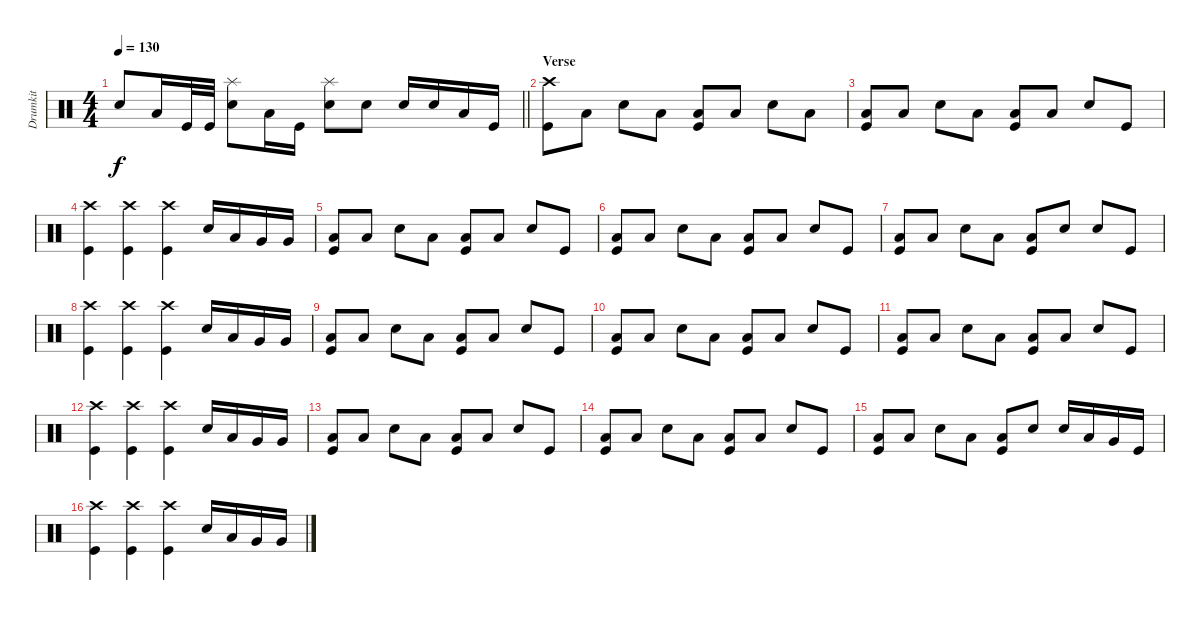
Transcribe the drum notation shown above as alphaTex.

\track ("Drumkit" "Drumkit") {instrument percussion}
\staff {score}
\articulation defaults
\ts (4 4)
\tempo 130
\clef neutral
\barLineRight lightlight
\ks c "Snare (hit) 2".8{dy f} "Low Tom (hit)".16 "Kick (hit)".32 "Kick (hit)".32
("Snare (hit) 2" "Splash (hit)").8 "Low Tom (hit)".16 "Kick (hit)".16 ("Snare (hit) 2" "Splash (hit)").8 "Snare (hit) 2".8 "Snare (hit) 2".16 "Snare (hit) 2".16 "Low Floor Tom (hit)".16 "Kick (hit)".16 |
\section ("" "Verse")
("Crash high (hit)" "Kick (hit)").8 "Low Floor Tom (hit)".8 "Snare (hit) 2".8 "Low Floor Tom (hit)".8 ("Low Floor Tom (hit)" "Kick (hit)").8 "Low Floor Tom (hit)".8 "Snare (hit) 2".8 "Low Floor Tom (hit)".8 |
("Kick (hit)" "Low Floor Tom (hit)").8 "Low Floor Tom (hit)".8 "Snare (hit) 2".8 "Low Floor Tom (hit)".8 ("Low Floor Tom (hit)" "Kick (hit)").8 "Low Floor Tom (hit)".8 "Snare (hit) 2".8 "Kick (hit)".8 |
("Crash high (hit)" "Kick (hit)").4 ("Crash high (hit)" "Kick (hit)").4 ("Crash high (hit)" "Kick (hit)").4 "Snare (hit) 2".16 "Low Tom (hit)".16 "Very Low Tom (hit)".16 "Very Low Tom (hit)".16 |
("Kick (hit)" "Low Floor Tom (hit)").8 "Low Floor Tom (hit)".8 "Snare (hit) 2".8 "Low Floor Tom (hit)".8 ("Low Floor Tom (hit)" "Kick (hit)").8 "Low Floor Tom (hit)".8 "Snare (hit) 2".8 "Kick (hit)".8 |
("Kick (hit)" "Low Floor Tom (hit)").8 "Low Floor Tom (hit)".8 "Snare (hit) 2".8 "Low Floor Tom (hit)".8 ("Low Floor Tom (hit)" "Kick (hit)").8 "Low Floor Tom (hit)".8 "Snare (hit) 2".8 "Kick (hit)".8 |
("Kick (hit)" "Low Floor Tom (hit)").8 "Low Floor Tom (hit)".8 "Snare (hit) 2".8 "Low Floor Tom (hit)".8 ("Low Floor Tom (hit)" "Kick (hit)").8 "Snare (hit) 2".8 "Snare (hit) 2".8 "Kick (hit)".8 |
("Crash high (hit)" "Kick (hit)").4 ("Crash high (hit)" "Kick (hit)").4 ("Crash high (hit)" "Kick (hit)").4 "Snare (hit) 2".16 "Low Tom (hit)".16 "Very Low Tom (hit)".16 "Very Low Tom (hit)".16 |
("Kick (hit)" "Low Floor Tom (hit)").8 "Low Floor Tom (hit)".8 "Snare (hit) 2".8 "Low Floor Tom (hit)".8 ("Low Floor Tom (hit)" "Kick (hit)").8 "Low Floor Tom (hit)".8 "Snare (hit) 2".8 "Kick (hit)".8 |
("Kick (hit)" "Low Floor Tom (hit)").8 "Low Floor Tom (hit)".8 "Snare (hit) 2".8 "Low Floor Tom (hit)".8 ("Low Floor Tom (hit)" "Kick (hit)").8 "Low Floor Tom (hit)".8 "Snare (hit) 2".8 "Kick (hit)".8 |
("Kick (hit)" "Low Floor Tom (hit)").8 "Low Floor Tom (hit)".8 "Snare (hit) 2".8 "Low Floor Tom (hit)".8 ("Low Floor Tom (hit)" "Kick (hit)").8 "Low Floor Tom (hit)".8 "Snare (hit) 2".8 "Kick (hit)".8 |
("Crash high (hit)" "Kick (hit)").4 ("Crash high (hit)" "Kick (hit)").4 ("Crash high (hit)" "Kick (hit)").4 "Snare (hit) 2".16 "Low Tom (hit)".16 "Very Low Tom (hit)".16 "Very Low Tom (hit)".16 |
("Kick (hit)" "Low Floor Tom (hit)").8 "Low Floor Tom (hit)".8 "Snare (hit) 2".8 "Low Floor Tom (hit)".8 ("Low Floor Tom (hit)" "Kick (hit)").8 "Low Floor Tom (hit)".8 "Snare (hit) 2".8 "Kick (hit)".8 |
("Kick (hit)" "Low Floor Tom (hit)").8 "Low Floor Tom (hit)".8 "Snare (hit) 2".8 "Low Floor Tom (hit)".8 ("Low Floor Tom (hit)" "Kick (hit)").8 "Low Floor Tom (hit)".8 "Snare (hit) 2".8 "Kick (hit)".8 |
("Kick (hit)" "Low Floor Tom (hit)").8 "Low Floor Tom (hit)".8 "Snare (hit) 2".8 "Low Floor Tom (hit)".8 ("Low Floor Tom (hit)" "Kick (hit)").8 "Snare (hit) 2".8 "Snare (hit) 2".16 "Low Tom (hit)".16 "Very Low Tom (hit)".16 "Kick (hit)".16 |
("Crash high (hit)" "Kick (hit)").4 ("Crash high (hit)" "Kick (hit)").4 ("Crash high (hit)" "Kick (hit)").4 "Snare (hit) 2".16 "Low Tom (hit)".16 "Very Low Tom (hit)".16 "Very Low Tom (hit)".16
